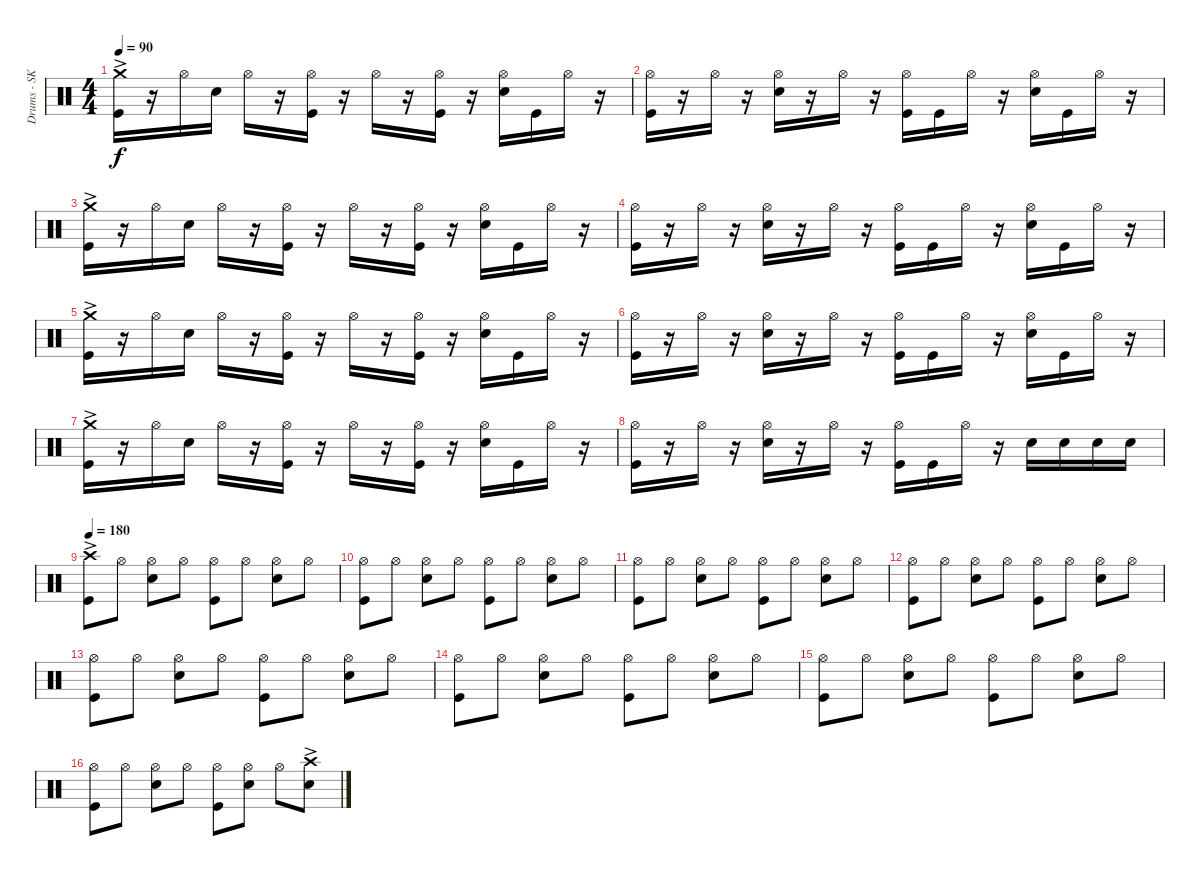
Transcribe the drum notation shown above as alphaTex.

\track ("Drums - SK" "Drums - SK") {instrument percussion}
\staff {score}
\articulation defaults
\ts (4 4)
\tempo 90
\clef neutral
\ks c
("Kick (hit)"{ac} "Crash medium (hit)").16{dy f} r.16 "Hi-Hat (open)".16 "Snare (hit) 2".16 "Hi-Hat (open)".16 r.16 ("Kick (hit)" "Hi-Hat (open)").16 r.16 "Hi-Hat (open)".16 r.16 ("Kick (hit)" "Hi-Hat (open)").16 r.16 ("Snare (hit) 2" "Hi-Hat (open)").16 "Kick (hit)".16 "Hi-Hat (open)".16 r.16 |
("Kick (hit)" "Hi-Hat (open)").16 r.16 "Hi-Hat (open)".16 r.16 ("Snare (hit) 2" "Hi-Hat (open)").16 r.16 "Hi-Hat (open)".16 r.16 ("Kick (hit)" "Hi-Hat (open)").16 "Kick (hit)".16 "Hi-Hat (open)".16 r.16 ("Snare (hit) 2" "Hi-Hat (open)").16 "Kick (hit)".16 "Hi-Hat (open)".16 r.16 |
("Kick (hit)"{ac} "Crash medium (hit)").16 r.16 "Hi-Hat (open)".16 "Snare (hit) 2".16 "Hi-Hat (open)".16 r.16 ("Kick (hit)" "Hi-Hat (open)").16 r.16 "Hi-Hat (open)".16 r.16 ("Kick (hit)" "Hi-Hat (open)").16 r.16 ("Snare (hit) 2" "Hi-Hat (open)").16 "Kick (hit)".16 "Hi-Hat (open)".16 r.16 |
("Kick (hit)" "Hi-Hat (open)").16 r.16 "Hi-Hat (open)".16 r.16 ("Snare (hit) 2" "Hi-Hat (open)").16 r.16 "Hi-Hat (open)".16 r.16 ("Kick (hit)" "Hi-Hat (open)").16 "Kick (hit)".16 "Hi-Hat (open)".16 r.16 ("Snare (hit) 2" "Hi-Hat (open)").16 "Kick (hit)".16 "Hi-Hat (open)".16 r.16 |
("Kick (hit)"{ac} "Crash medium (hit)").16 r.16 "Hi-Hat (open)".16 "Snare (hit) 2".16 "Hi-Hat (open)".16 r.16 ("Kick (hit)" "Hi-Hat (open)").16 r.16 "Hi-Hat (open)".16 r.16 ("Kick (hit)" "Hi-Hat (open)").16 r.16 ("Snare (hit) 2" "Hi-Hat (open)").16 "Kick (hit)".16 "Hi-Hat (open)".16 r.16 |
("Kick (hit)" "Hi-Hat (open)").16 r.16 "Hi-Hat (open)".16 r.16 ("Snare (hit) 2" "Hi-Hat (open)").16 r.16 "Hi-Hat (open)".16 r.16 ("Kick (hit)" "Hi-Hat (open)").16 "Kick (hit)".16 "Hi-Hat (open)".16 r.16 ("Snare (hit) 2" "Hi-Hat (open)").16 "Kick (hit)".16 "Hi-Hat (open)".16 r.16 |
("Kick (hit)"{ac} "Crash medium (hit)").16 r.16 "Hi-Hat (open)".16 "Snare (hit) 2".16 "Hi-Hat (open)".16 r.16 ("Kick (hit)" "Hi-Hat (open)").16 r.16 "Hi-Hat (open)".16 r.16 ("Kick (hit)" "Hi-Hat (open)").16 r.16 ("Snare (hit) 2" "Hi-Hat (open)").16 "Kick (hit)".16 "Hi-Hat (open)".16 r.16 |
("Kick (hit)" "Hi-Hat (open)").16 r.16 "Hi-Hat (open)".16 r.16 ("Snare (hit) 2" "Hi-Hat (open)").16 r.16 "Hi-Hat (open)".16 r.16 ("Kick (hit)" "Hi-Hat (open)").16 "Kick (hit)".16 "Hi-Hat (open)".16 r.16 "Snare (hit) 2".16 "Snare (hit) 2".16 "Snare (hit) 2".16 "Snare (hit) 2".16 |
\tempo 180
("Crash high (hit)"{ac} "Kick (hit)"{ac}).8 "Hi-Hat (open)".8 ("Hi-Hat (open)" "Snare (hit) 2").8 "Hi-Hat (open)".8 ("Hi-Hat (open)" "Kick (hit)").8 "Hi-Hat (open)".8 ("Hi-Hat (open)" "Snare (hit) 2").8 "Hi-Hat (open)".8 |
("Hi-Hat (open)" "Kick (hit)").8 "Hi-Hat (open)".8 ("Hi-Hat (open)" "Snare (hit) 2").8 "Hi-Hat (open)".8 ("Hi-Hat (open)" "Kick (hit)").8 "Hi-Hat (open)".8 ("Hi-Hat (open)" "Snare (hit) 2").8 "Hi-Hat (open)".8 |
("Hi-Hat (open)" "Kick (hit)").8 "Hi-Hat (open)".8 ("Hi-Hat (open)" "Snare (hit) 2").8 "Hi-Hat (open)".8 ("Hi-Hat (open)" "Kick (hit)").8 "Hi-Hat (open)".8 ("Hi-Hat (open)" "Snare (hit) 2").8 "Hi-Hat (open)".8 |
("Hi-Hat (open)" "Kick (hit)").8 "Hi-Hat (open)".8 ("Hi-Hat (open)" "Snare (hit) 2").8 "Hi-Hat (open)".8 ("Hi-Hat (open)" "Kick (hit)").8 "Hi-Hat (open)".8 ("Hi-Hat (open)" "Snare (hit) 2").8 "Hi-Hat (open)".8 |
("Hi-Hat (open)" "Kick (hit)").8 "Hi-Hat (open)".8 ("Hi-Hat (open)" "Snare (hit) 2").8 "Hi-Hat (open)".8 ("Hi-Hat (open)" "Kick (hit)").8 "Hi-Hat (open)".8 ("Hi-Hat (open)" "Snare (hit) 2").8 "Hi-Hat (open)".8 |
("Hi-Hat (open)" "Kick (hit)").8 "Hi-Hat (open)".8 ("Hi-Hat (open)" "Snare (hit) 2").8 "Hi-Hat (open)".8 ("Hi-Hat (open)" "Kick (hit)").8 "Hi-Hat (open)".8 ("Hi-Hat (open)" "Snare (hit) 2").8 "Hi-Hat (open)".8 |
("Hi-Hat (open)" "Kick (hit)").8 "Hi-Hat (open)".8 ("Hi-Hat (open)" "Snare (hit) 2").8 "Hi-Hat (open)".8 ("Hi-Hat (open)" "Kick (hit)").8 "Hi-Hat (open)".8 ("Hi-Hat (open)" "Snare (hit) 2").8 "Hi-Hat (open)".8 |
("Hi-Hat (open)" "Kick (hit)").8 "Hi-Hat (open)".8 ("Hi-Hat (open)" "Snare (hit) 2").8 "Hi-Hat (open)".8 ("Hi-Hat (open)" "Kick (hit)").8 ("Hi-Hat (open)" "Snare (hit) 2").8 "Hi-Hat (open)".8 ("Snare (hit) 2"{ac} "Crash high (hit)"{ac}).8
